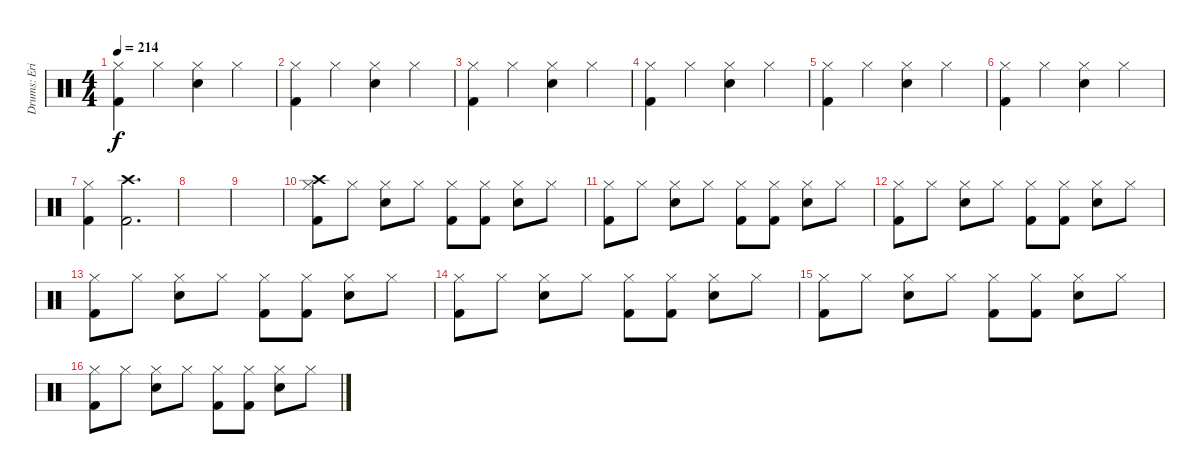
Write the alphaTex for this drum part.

\track ("Drums: Erik Sandin" "Drums: Eri") {instrument percussion}
\staff {score}
\articulation defaults
\ts (4 4)
\tempo 214
\clef neutral
\ks c
("Hi-Hat (closed)" "Kick (hit) 2").4{dy f} "Hi-Hat (closed)".4 ("Hi-Hat (closed)" "Electric Snare (hit)").4 "Hi-Hat (closed)".4 |
("Hi-Hat (closed)" "Kick (hit) 2").4 "Hi-Hat (closed)".4 ("Hi-Hat (closed)" "Electric Snare (hit)").4 "Hi-Hat (closed)".4 |
("Hi-Hat (closed)" "Kick (hit) 2").4 "Hi-Hat (closed)".4 ("Hi-Hat (closed)" "Electric Snare (hit)").4 "Hi-Hat (closed)".4 |
("Hi-Hat (closed)" "Kick (hit) 2").4 "Hi-Hat (closed)".4 ("Hi-Hat (closed)" "Electric Snare (hit)").4 "Hi-Hat (closed)".4 |
("Hi-Hat (closed)" "Kick (hit) 2").4 "Hi-Hat (closed)".4 ("Hi-Hat (closed)" "Electric Snare (hit)").4 "Hi-Hat (closed)".4 |
("Hi-Hat (closed)" "Kick (hit) 2").4 "Hi-Hat (closed)".4 ("Hi-Hat (closed)" "Electric Snare (hit)").4 "Hi-Hat (closed)".4 |
("Hi-Hat (closed)" "Kick (hit) 2").4 ("Crash high (hit)" "Kick (hit) 2").2{d} |
|
|
("Crash high (hit)" "Hi-Hat (closed)" "Kick (hit) 2").8 "Hi-Hat (closed)".8 ("Hi-Hat (closed)" "Electric Snare (hit)").8 "Hi-Hat (closed)".8 ("Hi-Hat (closed)" "Kick (hit) 2").8 ("Hi-Hat (closed)" "Kick (hit) 2").8 ("Hi-Hat (closed)" "Electric Snare (hit)").8 "Hi-Hat (closed)".8 |
("Hi-Hat (closed)" "Kick (hit) 2").8 "Hi-Hat (closed)".8 ("Hi-Hat (closed)" "Electric Snare (hit)").8 "Hi-Hat (closed)".8 ("Hi-Hat (closed)" "Kick (hit) 2").8 ("Hi-Hat (closed)" "Kick (hit) 2").8 ("Hi-Hat (closed)" "Electric Snare (hit)").8 "Hi-Hat (closed)".8 |
("Hi-Hat (closed)" "Kick (hit) 2").8 "Hi-Hat (closed)".8 ("Hi-Hat (closed)" "Electric Snare (hit)").8 "Hi-Hat (closed)".8 ("Hi-Hat (closed)" "Kick (hit) 2").8 ("Hi-Hat (closed)" "Kick (hit) 2").8 ("Hi-Hat (closed)" "Electric Snare (hit)").8 "Hi-Hat (closed)".8 |
("Hi-Hat (closed)" "Kick (hit) 2").8 "Hi-Hat (closed)".8 ("Hi-Hat (closed)" "Electric Snare (hit)").8 "Hi-Hat (closed)".8 ("Hi-Hat (closed)" "Kick (hit) 2").8 ("Hi-Hat (closed)" "Kick (hit) 2").8 ("Hi-Hat (closed)" "Electric Snare (hit)").8 "Hi-Hat (closed)".8 |
("Hi-Hat (closed)" "Kick (hit) 2").8 "Hi-Hat (closed)".8 ("Hi-Hat (closed)" "Electric Snare (hit)").8 "Hi-Hat (closed)".8 ("Hi-Hat (closed)" "Kick (hit) 2").8 ("Hi-Hat (closed)" "Kick (hit) 2").8 ("Hi-Hat (closed)" "Electric Snare (hit)").8 "Hi-Hat (closed)".8 |
("Hi-Hat (closed)" "Kick (hit) 2").8 "Hi-Hat (closed)".8 ("Hi-Hat (closed)" "Electric Snare (hit)").8 "Hi-Hat (closed)".8 ("Hi-Hat (closed)" "Kick (hit) 2").8 ("Hi-Hat (closed)" "Kick (hit) 2").8 ("Hi-Hat (closed)" "Electric Snare (hit)").8 "Hi-Hat (closed)".8 |
("Hi-Hat (closed)" "Kick (hit) 2").8 "Hi-Hat (closed)".8 ("Hi-Hat (closed)" "Electric Snare (hit)").8 "Hi-Hat (closed)".8 ("Hi-Hat (closed)" "Kick (hit) 2").8 ("Hi-Hat (closed)" "Kick (hit) 2").8 ("Hi-Hat (closed)" "Electric Snare (hit)").8 "Hi-Hat (closed)".8
